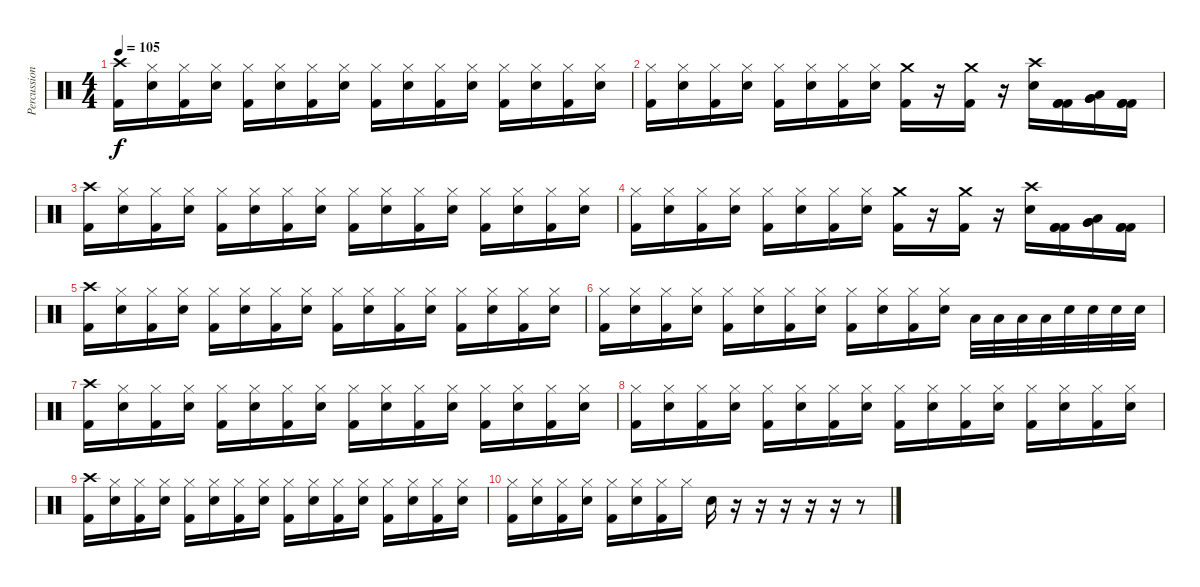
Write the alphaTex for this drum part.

\track ("Percussions" "Percussion") {instrument percussion}
\staff {score}
\articulation defaults
\ts (4 4)
\tempo 105
\clef neutral
\ks c
("Crash high (hit)" "Kick (hit) 2").16{dy f} ("Hi-Hat (closed)" "Snare (hit) 2").16 ("Hi-Hat (closed)" "Kick (hit) 2").16 ("Hi-Hat (closed)" "Snare (hit) 2").16 ("Hi-Hat (closed)" "Kick (hit) 2").16 ("Hi-Hat (closed)" "Snare (hit) 2").16 ("Hi-Hat (closed)" "Kick (hit) 2").16 ("Hi-Hat (closed)" "Snare (hit) 2").16 ("Hi-Hat (closed)" "Kick (hit) 2").16 ("Hi-Hat (closed)" "Snare (hit) 2").16 ("Hi-Hat (closed)" "Kick (hit) 2").16 ("Hi-Hat (closed)" "Snare (hit) 2").16 ("Hi-Hat (closed)" "Kick (hit) 2").16 ("Hi-Hat (closed)" "Snare (hit) 2").16 ("Hi-Hat (closed)" "Kick (hit) 2").16 ("Hi-Hat (closed)" "Snare (hit) 2").16 |
("Hi-Hat (closed)" "Kick (hit) 2").16 ("Hi-Hat (closed)" "Snare (hit) 2").16 ("Hi-Hat (closed)" "Kick (hit) 2").16 ("Hi-Hat (closed)" "Snare (hit) 2").16 ("Hi-Hat (closed)" "Kick (hit) 2").16 ("Hi-Hat (closed)" "Snare (hit) 2").16 ("Hi-Hat (closed)" "Kick (hit) 2").16 ("Hi-Hat (closed)" "Snare (hit) 2").16 ("Crash medium (hit)" "Kick (hit) 2").16 r.16 ("Crash medium (hit)" "Kick (hit) 2").16 r.16 ("Crash high (hit)" "Snare (hit) 2").16 ("Kick (hit) 2" "Kick (hit) 2" "Kick (hit) 2").16 ("Very Low Tom (hit)" "Very Low Tom (hit)" "Low Tom (hit)").16 ("Kick (hit) 2" "Kick (hit) 2" "Kick (hit) 2").16 |
("Crash high (hit)" "Kick (hit) 2").16 ("Hi-Hat (closed)" "Snare (hit) 2").16 ("Hi-Hat (closed)" "Kick (hit) 2").16 ("Hi-Hat (closed)" "Snare (hit) 2").16 ("Hi-Hat (closed)" "Kick (hit) 2").16 ("Hi-Hat (closed)" "Snare (hit) 2").16 ("Hi-Hat (closed)" "Kick (hit) 2").16 ("Hi-Hat (closed)" "Snare (hit) 2").16 ("Hi-Hat (closed)" "Kick (hit) 2").16 ("Hi-Hat (closed)" "Snare (hit) 2").16 ("Hi-Hat (closed)" "Kick (hit) 2").16 ("Hi-Hat (closed)" "Snare (hit) 2").16 ("Hi-Hat (closed)" "Kick (hit) 2").16 ("Hi-Hat (closed)" "Snare (hit) 2").16 ("Hi-Hat (closed)" "Kick (hit) 2").16 ("Hi-Hat (closed)" "Snare (hit) 2").16 |
("Hi-Hat (closed)" "Kick (hit) 2").16 ("Hi-Hat (closed)" "Snare (hit) 2").16 ("Hi-Hat (closed)" "Kick (hit) 2").16 ("Hi-Hat (closed)" "Snare (hit) 2").16 ("Hi-Hat (closed)" "Kick (hit) 2").16 ("Hi-Hat (closed)" "Snare (hit) 2").16 ("Hi-Hat (closed)" "Kick (hit) 2").16 ("Hi-Hat (closed)" "Snare (hit) 2").16 ("Crash medium (hit)" "Kick (hit) 2").16 r.16 ("Crash medium (hit)" "Kick (hit) 2").16 r.16 ("Crash high (hit)" "Snare (hit) 2").16 ("Kick (hit) 2" "Kick (hit) 2" "Kick (hit) 2").16 ("Very Low Tom (hit)" "Very Low Tom (hit)" "Low Tom (hit)").16 ("Kick (hit) 2" "Kick (hit) 2" "Kick (hit) 2").16 |
("Crash high (hit)" "Kick (hit) 2").16 ("Hi-Hat (closed)" "Snare (hit) 2").16 ("Hi-Hat (closed)" "Kick (hit) 2").16 ("Hi-Hat (closed)" "Snare (hit) 2").16 ("Hi-Hat (closed)" "Kick (hit) 2").16 ("Hi-Hat (closed)" "Snare (hit) 2").16 ("Hi-Hat (closed)" "Kick (hit) 2").16 ("Hi-Hat (closed)" "Snare (hit) 2").16 ("Hi-Hat (closed)" "Kick (hit) 2").16 ("Hi-Hat (closed)" "Snare (hit) 2").16 ("Hi-Hat (closed)" "Kick (hit) 2").16 ("Hi-Hat (closed)" "Snare (hit) 2").16 ("Hi-Hat (closed)" "Kick (hit) 2").16 ("Hi-Hat (closed)" "Snare (hit) 2").16 ("Hi-Hat (closed)" "Kick (hit) 2").16 ("Hi-Hat (closed)" "Snare (hit) 2").16 |
("Hi-Hat (closed)" "Kick (hit) 2").16 ("Hi-Hat (closed)" "Snare (hit) 2").16 ("Hi-Hat (closed)" "Kick (hit) 2").16 ("Hi-Hat (closed)" "Snare (hit) 2").16 ("Hi-Hat (closed)" "Kick (hit) 2").16 ("Hi-Hat (closed)" "Snare (hit) 2").16 ("Hi-Hat (closed)" "Kick (hit) 2").16 ("Hi-Hat (closed)" "Snare (hit) 2").16 ("Hi-Hat (closed)" "Kick (hit) 2").16 ("Hi-Hat (closed)" "Snare (hit) 2").16 ("Hi-Hat (closed)" "Kick (hit) 2").16 ("Hi-Hat (closed)" "Snare (hit) 2").16 "Low Tom (hit)".32 "Low Tom (hit)".32 "Low Tom (hit)".32 "Low Tom (hit)".32 "Snare (hit) 2".32 "Snare (hit) 2".32 "Snare (hit) 2".32 "Snare (hit) 2".32 |
("Crash high (hit)" "Kick (hit) 2").16 ("Hi-Hat (closed)" "Snare (hit) 2").16 ("Hi-Hat (closed)" "Kick (hit) 2").16 ("Hi-Hat (closed)" "Snare (hit) 2").16 ("Hi-Hat (closed)" "Kick (hit) 2").16 ("Hi-Hat (closed)" "Snare (hit) 2").16 ("Hi-Hat (closed)" "Kick (hit) 2").16 ("Hi-Hat (closed)" "Snare (hit) 2").16 ("Hi-Hat (closed)" "Kick (hit) 2").16 ("Hi-Hat (closed)" "Snare (hit) 2").16 ("Hi-Hat (closed)" "Kick (hit) 2").16 ("Hi-Hat (closed)" "Snare (hit) 2").16 ("Hi-Hat (closed)" "Kick (hit) 2").16 ("Hi-Hat (closed)" "Snare (hit) 2").16 ("Hi-Hat (closed)" "Kick (hit) 2").16 ("Hi-Hat (closed)" "Snare (hit) 2").16 |
("Hi-Hat (closed)" "Kick (hit) 2").16 ("Hi-Hat (closed)" "Snare (hit) 2").16 ("Hi-Hat (closed)" "Kick (hit) 2").16 ("Hi-Hat (closed)" "Snare (hit) 2").16 ("Hi-Hat (closed)" "Kick (hit) 2").16 ("Hi-Hat (closed)" "Snare (hit) 2").16 ("Hi-Hat (closed)" "Kick (hit) 2").16 ("Hi-Hat (closed)" "Snare (hit) 2").16 ("Hi-Hat (closed)" "Kick (hit) 2").16 ("Hi-Hat (closed)" "Snare (hit) 2").16 ("Hi-Hat (closed)" "Kick (hit) 2").16 ("Hi-Hat (closed)" "Snare (hit) 2").16 ("Hi-Hat (closed)" "Kick (hit) 2").16 ("Hi-Hat (closed)" "Snare (hit) 2").16 ("Hi-Hat (closed)" "Kick (hit) 2").16 ("Hi-Hat (closed)" "Snare (hit) 2").16 |
("Crash high (hit)" "Kick (hit) 2").16 ("Hi-Hat (closed)" "Snare (hit) 2").16 ("Hi-Hat (closed)" "Kick (hit) 2").16 ("Hi-Hat (closed)" "Snare (hit) 2").16 ("Hi-Hat (closed)" "Kick (hit) 2").16 ("Hi-Hat (closed)" "Snare (hit) 2").16 ("Hi-Hat (closed)" "Kick (hit) 2").16 ("Hi-Hat (closed)" "Snare (hit) 2").16 ("Hi-Hat (closed)" "Kick (hit) 2").16 ("Hi-Hat (closed)" "Snare (hit) 2").16 ("Hi-Hat (closed)" "Kick (hit) 2").16 ("Hi-Hat (closed)" "Snare (hit) 2").16 ("Hi-Hat (closed)" "Kick (hit) 2").16 ("Hi-Hat (closed)" "Snare (hit) 2").16 ("Hi-Hat (closed)" "Kick (hit) 2").16 ("Hi-Hat (closed)" "Snare (hit) 2").16 |
("Hi-Hat (closed)" "Kick (hit) 2").16 ("Hi-Hat (closed)" "Snare (hit) 2").16 ("Hi-Hat (closed)" "Kick (hit) 2").16 ("Hi-Hat (closed)" "Snare (hit) 2").16 ("Hi-Hat (closed)" "Kick (hit) 2").16 ("Hi-Hat (closed)" "Snare (hit) 2").16 ("Hi-Hat (closed)" "Kick (hit) 2").16 "Hi-Hat (closed)".16 "Snare (hit) 2".16 r.16 r.16 r.16 r.16 r.16 r.8
